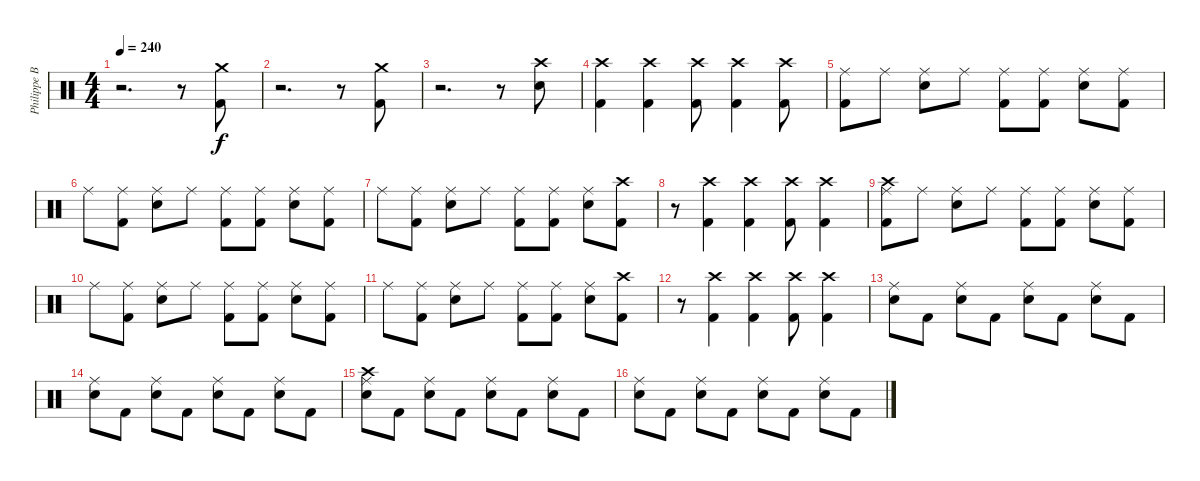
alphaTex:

\track ("Philippe Borda" "Philippe B") {instrument percussion}
\staff {score}
\articulation defaults
\ts (4 4)
\tempo 240
\clef neutral
\ks c
r.2{d dy f} r.8 ("Crash medium (hit)" "Kick (hit) 2").8 |
r.2{d} r.8 ("Crash medium (hit)" "Kick (hit) 2").8 |
r.2{d} r.8 ("Crash high (hit)" "Snare (hit) 2").8 |
("Crash high (hit)" "Kick (hit) 2").4 ("Crash high (hit)" "Kick (hit) 2").4 ("Crash high (hit)" "Kick (hit) 2").8 ("Crash high (hit)" "Kick (hit) 2").4 ("Crash high (hit)" "Kick (hit) 2").8 |
("Ride (middle)" "Kick (hit) 2").8 "Ride (middle)".8 ("Ride (middle)" "Snare (hit) 2").8 "Ride (middle)".8 ("Ride (middle)" "Kick (hit) 2").8 ("Ride (middle)" "Kick (hit) 2").8 ("Ride (middle)" "Snare (hit) 2").8 ("Ride (middle)" "Kick (hit) 2").8 |
"Ride (middle)".8 ("Ride (middle)" "Kick (hit) 2").8 ("Ride (middle)" "Snare (hit) 2").8 "Ride (middle)".8 ("Ride (middle)" "Kick (hit) 2").8 ("Ride (middle)" "Kick (hit) 2").8 ("Ride (middle)" "Snare (hit) 2").8 ("Ride (middle)" "Kick (hit) 2").8 |
"Ride (middle)".8 ("Ride (middle)" "Kick (hit) 2").8 ("Ride (middle)" "Snare (hit) 2").8 "Ride (middle)".8 ("Ride (middle)" "Kick (hit) 2").8 ("Ride (middle)" "Kick (hit) 2").8 ("Ride (middle)" "Snare (hit) 2").8 ("Crash high (hit)" "Kick (hit) 2").8 |
r.8 ("Crash high (hit)" "Kick (hit) 2").4 ("Crash high (hit)" "Kick (hit) 2").4 ("Crash high (hit)" "Kick (hit) 2").8 ("Crash high (hit)" "Kick (hit) 2").4 |
("Crash high (hit)" "Ride (middle)" "Kick (hit) 2").8 "Ride (middle)".8 ("Ride (middle)" "Snare (hit) 2").8 "Ride (middle)".8 ("Ride (middle)" "Kick (hit) 2").8 ("Ride (middle)" "Kick (hit) 2").8 ("Ride (middle)" "Snare (hit) 2").8 ("Ride (middle)" "Kick (hit) 2").8 |
"Ride (middle)".8 ("Ride (middle)" "Kick (hit) 2").8 ("Ride (middle)" "Snare (hit) 2").8 "Ride (middle)".8 ("Ride (middle)" "Kick (hit) 2").8 ("Ride (middle)" "Kick (hit) 2").8 ("Ride (middle)" "Snare (hit) 2").8 ("Ride (middle)" "Kick (hit) 2").8 |
"Ride (middle)".8 ("Ride (middle)" "Kick (hit) 2").8 ("Ride (middle)" "Snare (hit) 2").8 "Ride (middle)".8 ("Ride (middle)" "Kick (hit) 2").8 ("Ride (middle)" "Kick (hit) 2").8 ("Ride (middle)" "Snare (hit) 2").8 ("Crash high (hit)" "Kick (hit) 2").8 |
r.8 ("Crash high (hit)" "Kick (hit) 2").4 ("Crash high (hit)" "Kick (hit) 2").4 ("Crash high (hit)" "Kick (hit) 2").8 ("Crash high (hit)" "Kick (hit) 2").4 |
("Ride (middle)" "Snare (hit) 2").8 "Kick (hit) 2".8 ("Ride (middle)" "Snare (hit) 2").8 "Kick (hit) 2".8 ("Ride (middle)" "Snare (hit) 2").8 "Kick (hit) 2".8 ("Ride (middle)" "Snare (hit) 2").8 "Kick (hit) 2".8 |
("Ride (middle)" "Snare (hit) 2").8 "Kick (hit) 2".8 ("Ride (middle)" "Snare (hit) 2").8 "Kick (hit) 2".8 ("Ride (middle)" "Snare (hit) 2").8 "Kick (hit) 2".8 ("Ride (middle)" "Snare (hit) 2").8 "Kick (hit) 2".8 |
("Crash high (hit)" "Ride (middle)" "Snare (hit) 2").8 "Kick (hit) 2".8 ("Ride (middle)" "Snare (hit) 2").8 "Kick (hit) 2".8 ("Ride (middle)" "Snare (hit) 2").8 "Kick (hit) 2".8 ("Ride (middle)" "Snare (hit) 2").8 "Kick (hit) 2".8 |
("Ride (middle)" "Snare (hit) 2").8 "Kick (hit) 2".8 ("Ride (middle)" "Snare (hit) 2").8 "Kick (hit) 2".8 ("Ride (middle)" "Snare (hit) 2").8 "Kick (hit) 2".8 ("Ride (middle)" "Snare (hit) 2").8 "Kick (hit) 2".8
